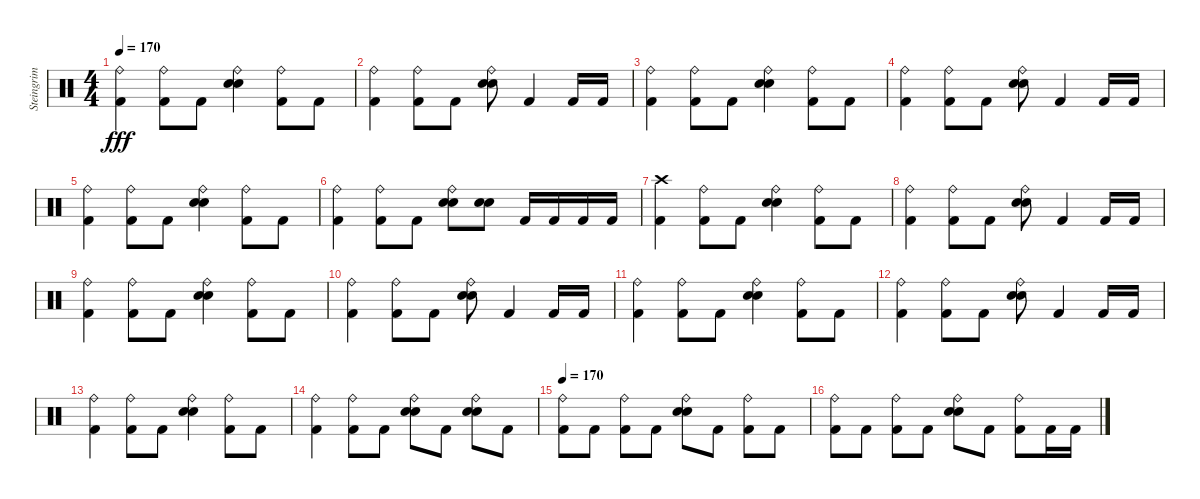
\track ("Steingrim" "Steingrim") {instrument percussion}
\staff {score}
\articulation defaults
\ts (4 4)
\tempo 170
\clef neutral
\ks c
("Kick (hit) 2" "Ride (bell)").4{dy fff} ("Kick (hit) 2" "Ride (bell)").8 "Kick (hit) 2".8 ("Snare (hit) 2" "Electric Snare (hit)" "Ride (bell)").4 ("Kick (hit) 2" "Ride (bell)").8 "Kick (hit) 2".8 |
("Kick (hit) 2" "Ride (bell)").4 ("Kick (hit) 2" "Ride (bell)").8 "Kick (hit) 2".8 ("Snare (hit) 2" "Electric Snare (hit)" "Ride (bell)").8 "Kick (hit) 2".4 "Kick (hit) 2".16 "Kick (hit) 2".16 |
("Kick (hit) 2" "Ride (bell)").4 ("Kick (hit) 2" "Ride (bell)").8 "Kick (hit) 2".8 ("Snare (hit) 2" "Electric Snare (hit)" "Ride (bell)").4 ("Kick (hit) 2" "Ride (bell)").8 "Kick (hit) 2".8 |
("Kick (hit) 2" "Ride (bell)").4 ("Kick (hit) 2" "Ride (bell)").8 "Kick (hit) 2".8 ("Snare (hit) 2" "Electric Snare (hit)" "Ride (bell)").8 "Kick (hit) 2".4 "Kick (hit) 2".16 "Kick (hit) 2".16 |
("Kick (hit) 2" "Ride (bell)").4 ("Kick (hit) 2" "Ride (bell)").8 "Kick (hit) 2".8 ("Snare (hit) 2" "Electric Snare (hit)" "Ride (bell)").4 ("Kick (hit) 2" "Ride (bell)").8 "Kick (hit) 2".8 |
("Kick (hit) 2" "Ride (bell)").4 ("Kick (hit) 2" "Ride (bell)").8 "Kick (hit) 2".8 ("Snare (hit) 2" "Electric Snare (hit)" "Ride (bell)").8 ("Snare (hit) 2" "Electric Snare (hit)").8 "Kick (hit) 2".16 "Kick (hit) 2".16 "Kick (hit) 2".16 "Kick (hit) 2".16 |
("Kick (hit) 2" "Crash high (hit)").4 ("Kick (hit) 2" "Ride (bell)").8 "Kick (hit) 2".8 ("Snare (hit) 2" "Electric Snare (hit)" "Ride (bell)").4 ("Kick (hit) 2" "Ride (bell)").8 "Kick (hit) 2".8 |
("Kick (hit) 2" "Ride (bell)").4 ("Kick (hit) 2" "Ride (bell)").8 "Kick (hit) 2".8 ("Snare (hit) 2" "Electric Snare (hit)" "Ride (bell)").8 "Kick (hit) 2".4 "Kick (hit) 2".16 "Kick (hit) 2".16 |
("Kick (hit) 2" "Ride (bell)").4 ("Kick (hit) 2" "Ride (bell)").8 "Kick (hit) 2".8 ("Snare (hit) 2" "Electric Snare (hit)" "Ride (bell)").4 ("Kick (hit) 2" "Ride (bell)").8 "Kick (hit) 2".8 |
("Kick (hit) 2" "Ride (bell)").4 ("Kick (hit) 2" "Ride (bell)").8 "Kick (hit) 2".8 ("Snare (hit) 2" "Electric Snare (hit)" "Ride (bell)").8 "Kick (hit) 2".4 "Kick (hit) 2".16 "Kick (hit) 2".16 |
("Kick (hit) 2" "Ride (bell)").4 ("Kick (hit) 2" "Ride (bell)").8 "Kick (hit) 2".8 ("Snare (hit) 2" "Electric Snare (hit)" "Ride (bell)").4 ("Kick (hit) 2" "Ride (bell)").8 "Kick (hit) 2".8 |
("Kick (hit) 2" "Ride (bell)").4 ("Kick (hit) 2" "Ride (bell)").8 "Kick (hit) 2".8 ("Snare (hit) 2" "Electric Snare (hit)" "Ride (bell)").8 "Kick (hit) 2".4 "Kick (hit) 2".16 "Kick (hit) 2".16 |
("Kick (hit) 2" "Ride (bell)").4 ("Kick (hit) 2" "Ride (bell)").8 "Kick (hit) 2".8 ("Snare (hit) 2" "Electric Snare (hit)" "Ride (bell)").4 ("Kick (hit) 2" "Ride (bell)").8 "Kick (hit) 2".8 |
("Kick (hit) 2" "Ride (bell)").4 ("Kick (hit) 2" "Ride (bell)").8 "Kick (hit) 2".8 ("Snare (hit) 2" "Electric Snare (hit)" "Ride (bell)").8 "Kick (hit) 2".8 ("Snare (hit) 2" "Electric Snare (hit)" "Ride (bell)").8 "Kick (hit) 2".8 |
\tempo 170
("Kick (hit) 2" "Ride (bell)").8 "Kick (hit) 2".8 ("Kick (hit) 2" "Ride (bell)").8 "Kick (hit) 2".8 ("Snare (hit) 2" "Electric Snare (hit)" "Ride (bell)").8 "Kick (hit) 2".8 ("Kick (hit) 2" "Ride (bell)").8 "Kick (hit) 2".8 |
("Kick (hit) 2" "Ride (bell)").8 "Kick (hit) 2".8 ("Kick (hit) 2" "Ride (bell)").8 "Kick (hit) 2".8 ("Snare (hit) 2" "Electric Snare (hit)" "Ride (bell)").8 "Kick (hit) 2".8 ("Kick (hit) 2" "Ride (bell)").8 "Kick (hit) 2".16 "Kick (hit) 2".16
